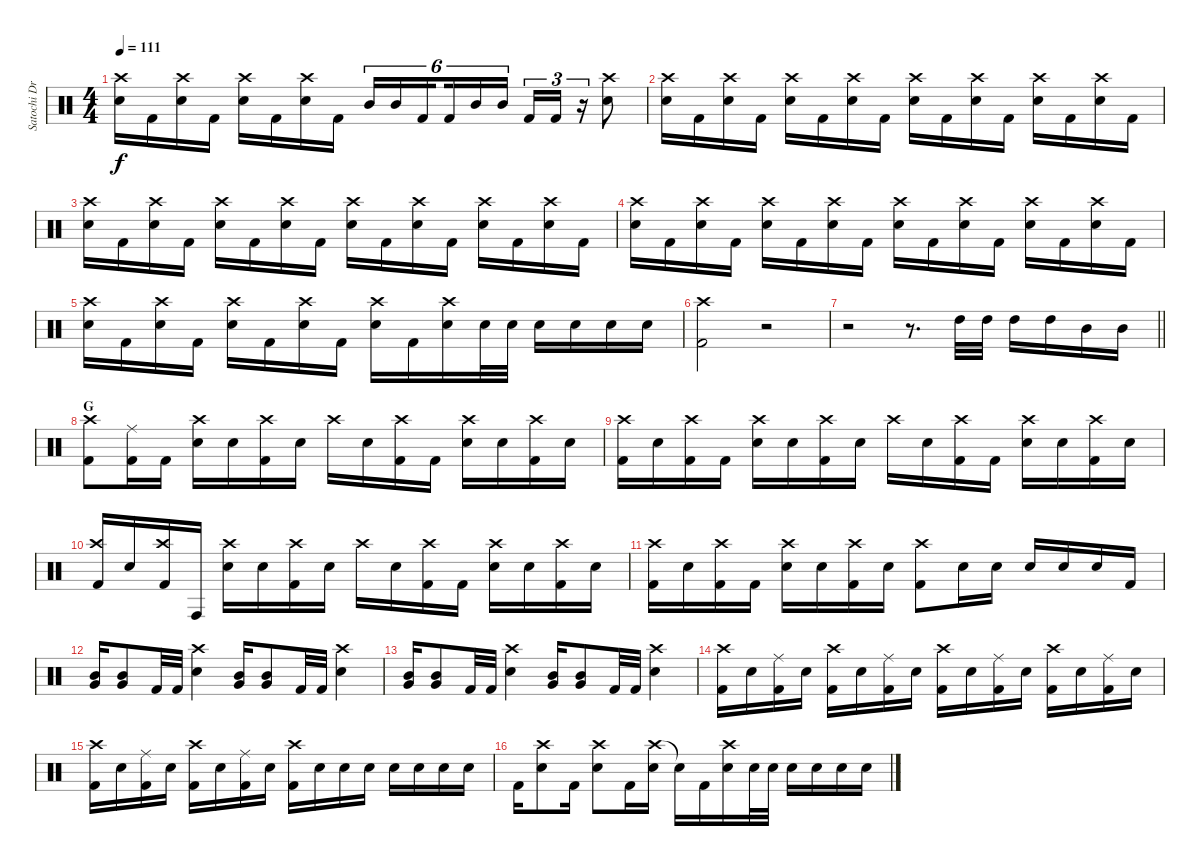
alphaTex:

\track ("Satochi Drums" "Satochi Dr") {instrument percussion}
\staff {score}
\articulation defaults
\ts (4 4)
\tempo 111
\clef neutral
\ks c
("Crash high (hit)" "Snare (hit) 2").16{dy f} "Kick (hit) 2".16 ("Crash high (hit)" "Snare (hit) 2").16 "Kick (hit) 2".16 ("Crash high (hit)" "Snare (hit) 2").16 "Kick (hit) 2".16 ("Crash high (hit)" "Snare (hit) 2").16 "Kick (hit) 2".16 "Mid Tom (hit)".16{tu (6 4)} "Mid Tom (hit)".16{tu (6 4)} "Kick (hit) 2".16{tu (6 4) beam splitsecondary} "Kick (hit) 2".16{tu (6 4)} "Mid Tom (hit)".16{tu (6 4)} "Mid Tom (hit)".16{tu (6 4)} "Kick (hit) 2".16{tu (3 2)} "Kick (hit) 2".16{tu (3 2)} r.16{tu (3 2)} ("Crash high (hit)" "Snare (hit) 2").8 |
("Crash high (hit)" "Snare (hit) 2").16 "Kick (hit) 2".16 ("Crash high (hit)" "Snare (hit) 2").16 "Kick (hit) 2".16 ("Crash high (hit)" "Snare (hit) 2").16 "Kick (hit) 2".16 ("Crash high (hit)" "Snare (hit) 2").16 "Kick (hit) 2".16 ("Crash high (hit)" "Snare (hit) 2").16 "Kick (hit) 2".16 ("Crash high (hit)" "Snare (hit) 2").16 "Kick (hit) 2".16 ("Crash high (hit)" "Snare (hit) 2").16 "Kick (hit) 2".16 ("Crash high (hit)" "Snare (hit) 2").16 "Kick (hit) 2".16 |
("Crash high (hit)" "Snare (hit) 2").16 "Kick (hit) 2".16 ("Crash high (hit)" "Snare (hit) 2").16 "Kick (hit) 2".16 ("Crash high (hit)" "Snare (hit) 2").16 "Kick (hit) 2".16 ("Crash high (hit)" "Snare (hit) 2").16 "Kick (hit) 2".16 ("Crash high (hit)" "Snare (hit) 2").16 "Kick (hit) 2".16 ("Crash high (hit)" "Snare (hit) 2").16 "Kick (hit) 2".16 ("Crash high (hit)" "Snare (hit) 2").16 "Kick (hit) 2".16 ("Crash high (hit)" "Snare (hit) 2").16 "Kick (hit) 2".16 |
("Crash high (hit)" "Snare (hit) 2").16 "Kick (hit) 2".16 ("Crash high (hit)" "Snare (hit) 2").16 "Kick (hit) 2".16 ("Crash high (hit)" "Snare (hit) 2").16 "Kick (hit) 2".16 ("Crash high (hit)" "Snare (hit) 2").16 "Kick (hit) 2".16 ("Crash high (hit)" "Snare (hit) 2").16 "Kick (hit) 2".16 ("Crash high (hit)" "Snare (hit) 2").16 "Kick (hit) 2".16 ("Crash high (hit)" "Snare (hit) 2").16 "Kick (hit) 2".16 ("Crash high (hit)" "Snare (hit) 2").16 "Kick (hit) 2".16 |
("Crash high (hit)" "Snare (hit) 2").16 "Kick (hit) 2".16 ("Crash high (hit)" "Snare (hit) 2").16 "Kick (hit) 2".16 ("Crash high (hit)" "Snare (hit) 2").16 "Kick (hit) 2".16 ("Crash high (hit)" "Snare (hit) 2").16 "Kick (hit) 2".16 ("Crash high (hit)" "Snare (hit) 2").16 "Kick (hit) 2".16 ("Crash high (hit)" "Snare (hit) 2").16 "Snare (hit) 2".32 "Snare (hit) 2".32 "Snare (hit) 2".16 "Snare (hit) 2".16 "Snare (hit) 2".16 "Snare (hit) 2".16 |
("Crash high (hit)" "Kick (hit) 2").2 r.2 |
\barLineRight lightlight
r.2 r.8{d} "High Tom (hit)".32 "High Tom (hit)".32 "High Tom (hit)".16 "High Tom (hit)".16 "Mid Tom (hit)".16 "Mid Tom (hit)".16 |
\section ("" "G")
("Crash high (hit)" "Kick (hit) 2").8 ("Ride (middle)" "Kick (hit) 2").16 "Kick (hit) 2".16 ("Crash high (hit)" "Snare (hit) 2").16 "Snare (hit) 2".16 ("Crash high (hit)" "Kick (hit) 2").16 "Snare (hit) 2".16 "Crash high (hit)".16 "Snare (hit) 2".16 ("Crash high (hit)" "Kick (hit) 2").16 "Kick (hit) 2".16 ("Crash high (hit)" "Snare (hit) 2").16 "Snare (hit) 2".16 ("Crash high (hit)" "Kick (hit) 2").16 "Snare (hit) 2".16 |
("Crash high (hit)" "Kick (hit) 2").16 "Snare (hit) 2".16 ("Crash high (hit)" "Kick (hit) 2").16 "Kick (hit) 2".16 ("Crash high (hit)" "Snare (hit) 2").16 "Snare (hit) 2".16 ("Crash high (hit)" "Kick (hit) 2").16 "Snare (hit) 2".16 "Crash high (hit)".16 "Snare (hit) 2".16 ("Crash high (hit)" "Kick (hit) 2").16 "Kick (hit) 2".16 ("Crash high (hit)" "Snare (hit) 2").16 "Snare (hit) 2".16 ("Crash high (hit)" "Kick (hit) 2").16 "Snare (hit) 2".16 |
("Crash high (hit)" "Kick (hit) 2").16 "Snare (hit) 2".16 ("Crash high (hit)" "Kick (hit) 2").16 "Conga high (hit)".16 ("Crash high (hit)" "Snare (hit) 2").16 "Snare (hit) 2".16 ("Crash high (hit)" "Kick (hit) 2").16 "Snare (hit) 2".16 "Crash high (hit)".16 "Snare (hit) 2".16 ("Crash high (hit)" "Kick (hit) 2").16 "Kick (hit) 2".16 ("Crash high (hit)" "Snare (hit) 2").16 "Snare (hit) 2".16 ("Crash high (hit)" "Kick (hit) 2").16 "Snare (hit) 2".16 |
("Crash high (hit)" "Kick (hit) 2").16 "Snare (hit) 2".16 ("Crash high (hit)" "Kick (hit) 2").16 "Kick (hit) 2".16 ("Crash high (hit)" "Snare (hit) 2").16 "Snare (hit) 2".16 ("Crash high (hit)" "Kick (hit) 2").16 "Snare (hit) 2".16 ("Crash high (hit)" "Kick (hit) 2").8 "Snare (hit) 2".16 "Snare (hit) 2".16 "Snare (hit) 2".16 "Snare (hit) 2".16 "Snare (hit) 2".16 "Kick (hit) 2".16 |
("Mid Tom (hit)" "Very Low Tom (hit)").16 ("Mid Tom (hit)" "Very Low Tom (hit)").8 "Kick (hit) 2".32 "Kick (hit) 2".32 ("Crash high (hit)" "Snare (hit) 2").4 ("Mid Tom (hit)" "Very Low Tom (hit)").16 ("Mid Tom (hit)" "Very Low Tom (hit)").8 "Kick (hit) 2".32 "Kick (hit) 2".32 ("Crash high (hit)" "Snare (hit) 2").4 |
("Mid Tom (hit)" "Very Low Tom (hit)").16 ("Mid Tom (hit)" "Very Low Tom (hit)").8 "Kick (hit) 2".32 "Kick (hit) 2".32 ("Crash high (hit)" "Snare (hit) 2").4 ("Mid Tom (hit)" "Very Low Tom (hit)").16 ("Mid Tom (hit)" "Very Low Tom (hit)").8 "Kick (hit) 2".32 "Kick (hit) 2".32 ("Crash high (hit)" "Snare (hit) 2").4 |
("Crash high (hit)" "Kick (hit) 2").16 "Snare (hit) 2".16 ("Ride (middle)" "Kick (hit) 2").16 "Snare (hit) 2".16 ("Crash high (hit)" "Kick (hit) 2").16 "Snare (hit) 2".16 ("Ride (middle)" "Kick (hit) 2").16 "Snare (hit) 2".16 ("Crash high (hit)" "Kick (hit) 2").16 "Snare (hit) 2".16 ("Ride (middle)" "Kick (hit) 2").16 "Snare (hit) 2".16 ("Crash high (hit)" "Kick (hit) 2").16 "Snare (hit) 2".16 ("Ride (middle)" "Kick (hit) 2").16 "Snare (hit) 2".16 |
("Crash high (hit)" "Kick (hit) 2").16 "Snare (hit) 2".16 ("Ride (middle)" "Kick (hit) 2").16 "Snare (hit) 2".16 ("Crash high (hit)" "Kick (hit) 2").16 "Snare (hit) 2".16 ("Ride (middle)" "Kick (hit) 2").16 "Snare (hit) 2".16 ("Crash high (hit)" "Kick (hit) 2").16 "Snare (hit) 2".16 "Snare (hit) 2".16 "Snare (hit) 2".16 "Snare (hit) 2".16 "Snare (hit) 2".16 "Snare (hit) 2".16 "Snare (hit) 2".16 |
"Kick (hit) 2".16 ("Crash high (hit)" "Snare (hit) 2").8 "Kick (hit) 2".16 ("Crash high (hit)" "Snare (hit) 2").8 "Kick (hit) 2".16 ("Crash high (hit)" "Snare (hit) 2").16 "Snare (hit)"{t}.16 "Kick (hit) 2".16 ("Crash high (hit)" "Snare (hit) 2").16 "Snare (hit) 2".32 "Snare (hit) 2".32 "Snare (hit) 2".16 "Snare (hit) 2".16 "Snare (hit) 2".16 "Snare (hit) 2".16
